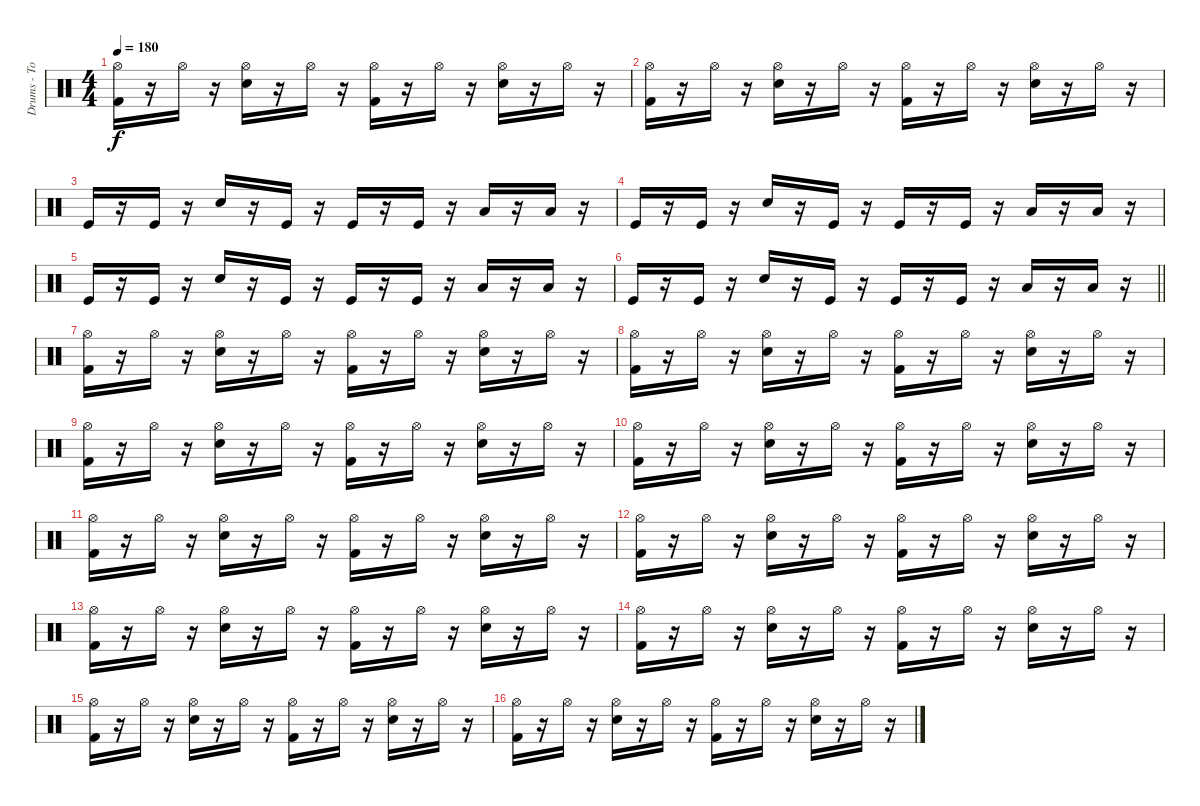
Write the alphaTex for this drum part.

\track ("Drums - Tommy Ramone" "Drums - To") {instrument percussion}
\staff {score}
\articulation defaults
\ts (4 4)
\tempo 180
\clef neutral
\ks c
("Hi-Hat (open)" "Kick (hit) 2").16{dy f} r.16 "Hi-Hat (open)".16 r.16 ("Hi-Hat (open)" "Electric Snare (hit)").16 r.16 "Hi-Hat (open)".16 r.16 ("Hi-Hat (open)" "Kick (hit) 2").16 r.16 "Hi-Hat (open)".16 r.16 ("Hi-Hat (open)" "Electric Snare (hit)").16 r.16 "Hi-Hat (open)".16 r.16 |
("Hi-Hat (open)" "Kick (hit) 2").16 r.16 "Hi-Hat (open)".16 r.16 ("Hi-Hat (open)" "Electric Snare (hit)").16 r.16 "Hi-Hat (open)".16 r.16 ("Hi-Hat (open)" "Kick (hit) 2").16 r.16 "Hi-Hat (open)".16 r.16 ("Hi-Hat (open)" "Electric Snare (hit)").16 r.16 "Hi-Hat (open)".16 r.16 |
"Kick (hit)".16 r.16 "Kick (hit)".16 r.16 "Electric Snare (hit)".16 r.16 "Kick (hit)".16 r.16 "Kick (hit)".16 r.16 "Kick (hit)".16 r.16 "Low Floor Tom (hit)".16 r.16 "Low Floor Tom (hit)".16 r.16 |
"Kick (hit)".16 r.16 "Kick (hit)".16 r.16 "Electric Snare (hit)".16 r.16 "Kick (hit)".16 r.16 "Kick (hit)".16 r.16 "Kick (hit)".16 r.16 "Low Floor Tom (hit)".16 r.16 "Low Floor Tom (hit)".16 r.16 |
"Kick (hit)".16 r.16 "Kick (hit)".16 r.16 "Electric Snare (hit)".16 r.16 "Kick (hit)".16 r.16 "Kick (hit)".16 r.16 "Kick (hit)".16 r.16 "Low Floor Tom (hit)".16 r.16 "Low Floor Tom (hit)".16 r.16 |
\barLineRight lightlight "Kick (hit)".16
r.16 "Kick (hit)".16 r.16 "Electric Snare (hit)".16 r.16 "Kick (hit)".16 r.16 "Kick (hit)".16 r.16 "Kick (hit)".16 r.16 "Low Floor Tom (hit)".16 r.16 "Low Floor Tom (hit)".16 r.16 |
("Hi-Hat (open)" "Kick (hit) 2").16 r.16 "Hi-Hat (open)".16 r.16 ("Hi-Hat (open)" "Electric Snare (hit)").16 r.16 "Hi-Hat (open)".16 r.16 ("Hi-Hat (open)" "Kick (hit) 2").16 r.16 "Hi-Hat (open)".16 r.16 ("Hi-Hat (open)" "Electric Snare (hit)").16 r.16 "Hi-Hat (open)".16 r.16 |
("Hi-Hat (open)" "Kick (hit) 2").16 r.16 "Hi-Hat (open)".16 r.16 ("Hi-Hat (open)" "Electric Snare (hit)").16 r.16 "Hi-Hat (open)".16 r.16 ("Hi-Hat (open)" "Kick (hit) 2").16 r.16 "Hi-Hat (open)".16 r.16 ("Hi-Hat (open)" "Electric Snare (hit)").16 r.16 "Hi-Hat (open)".16 r.16 |
("Hi-Hat (open)" "Kick (hit) 2").16 r.16 "Hi-Hat (open)".16 r.16 ("Hi-Hat (open)" "Electric Snare (hit)").16 r.16 "Hi-Hat (open)".16 r.16 ("Hi-Hat (open)" "Kick (hit) 2").16 r.16 "Hi-Hat (open)".16 r.16 ("Hi-Hat (open)" "Electric Snare (hit)").16 r.16 "Hi-Hat (open)".16 r.16 |
("Hi-Hat (open)" "Kick (hit) 2").16 r.16 "Hi-Hat (open)".16 r.16 ("Hi-Hat (open)" "Electric Snare (hit)").16 r.16 "Hi-Hat (open)".16 r.16 ("Hi-Hat (open)" "Kick (hit) 2").16 r.16 "Hi-Hat (open)".16 r.16 ("Hi-Hat (open)" "Electric Snare (hit)").16 r.16 "Hi-Hat (open)".16 r.16 |
("Hi-Hat (open)" "Kick (hit) 2").16 r.16 "Hi-Hat (open)".16 r.16 ("Hi-Hat (open)" "Electric Snare (hit)").16 r.16 "Hi-Hat (open)".16 r.16 ("Hi-Hat (open)" "Kick (hit) 2").16 r.16 "Hi-Hat (open)".16 r.16 ("Hi-Hat (open)" "Electric Snare (hit)").16 r.16 "Hi-Hat (open)".16 r.16 |
("Hi-Hat (open)" "Kick (hit) 2").16 r.16 "Hi-Hat (open)".16 r.16 ("Hi-Hat (open)" "Electric Snare (hit)").16 r.16 "Hi-Hat (open)".16 r.16 ("Hi-Hat (open)" "Kick (hit) 2").16 r.16 "Hi-Hat (open)".16 r.16 ("Hi-Hat (open)" "Electric Snare (hit)").16 r.16 "Hi-Hat (open)".16 r.16 |
("Hi-Hat (open)" "Kick (hit) 2").16 r.16 "Hi-Hat (open)".16 r.16 ("Hi-Hat (open)" "Electric Snare (hit)").16 r.16 "Hi-Hat (open)".16 r.16 ("Hi-Hat (open)" "Kick (hit) 2").16 r.16 "Hi-Hat (open)".16 r.16 ("Hi-Hat (open)" "Electric Snare (hit)").16 r.16 "Hi-Hat (open)".16 r.16 |
("Hi-Hat (open)" "Kick (hit) 2").16 r.16 "Hi-Hat (open)".16 r.16 ("Hi-Hat (open)" "Electric Snare (hit)").16 r.16 "Hi-Hat (open)".16 r.16 ("Hi-Hat (open)" "Kick (hit) 2").16 r.16 "Hi-Hat (open)".16 r.16 ("Hi-Hat (open)" "Electric Snare (hit)").16 r.16 "Hi-Hat (open)".16 r.16 |
("Hi-Hat (open)" "Kick (hit) 2").16 r.16 "Hi-Hat (open)".16 r.16 ("Hi-Hat (open)" "Electric Snare (hit)").16 r.16 "Hi-Hat (open)".16 r.16 ("Hi-Hat (open)" "Kick (hit) 2").16 r.16 "Hi-Hat (open)".16 r.16 ("Hi-Hat (open)" "Electric Snare (hit)").16 r.16 "Hi-Hat (open)".16 r.16 |
("Hi-Hat (open)" "Kick (hit) 2").16 r.16 "Hi-Hat (open)".16 r.16 ("Hi-Hat (open)" "Electric Snare (hit)").16 r.16 "Hi-Hat (open)".16 r.16 ("Hi-Hat (open)" "Kick (hit) 2").16 r.16 "Hi-Hat (open)".16 r.16 ("Hi-Hat (open)" "Electric Snare (hit)").16 r.16 "Hi-Hat (open)".16 r.16
